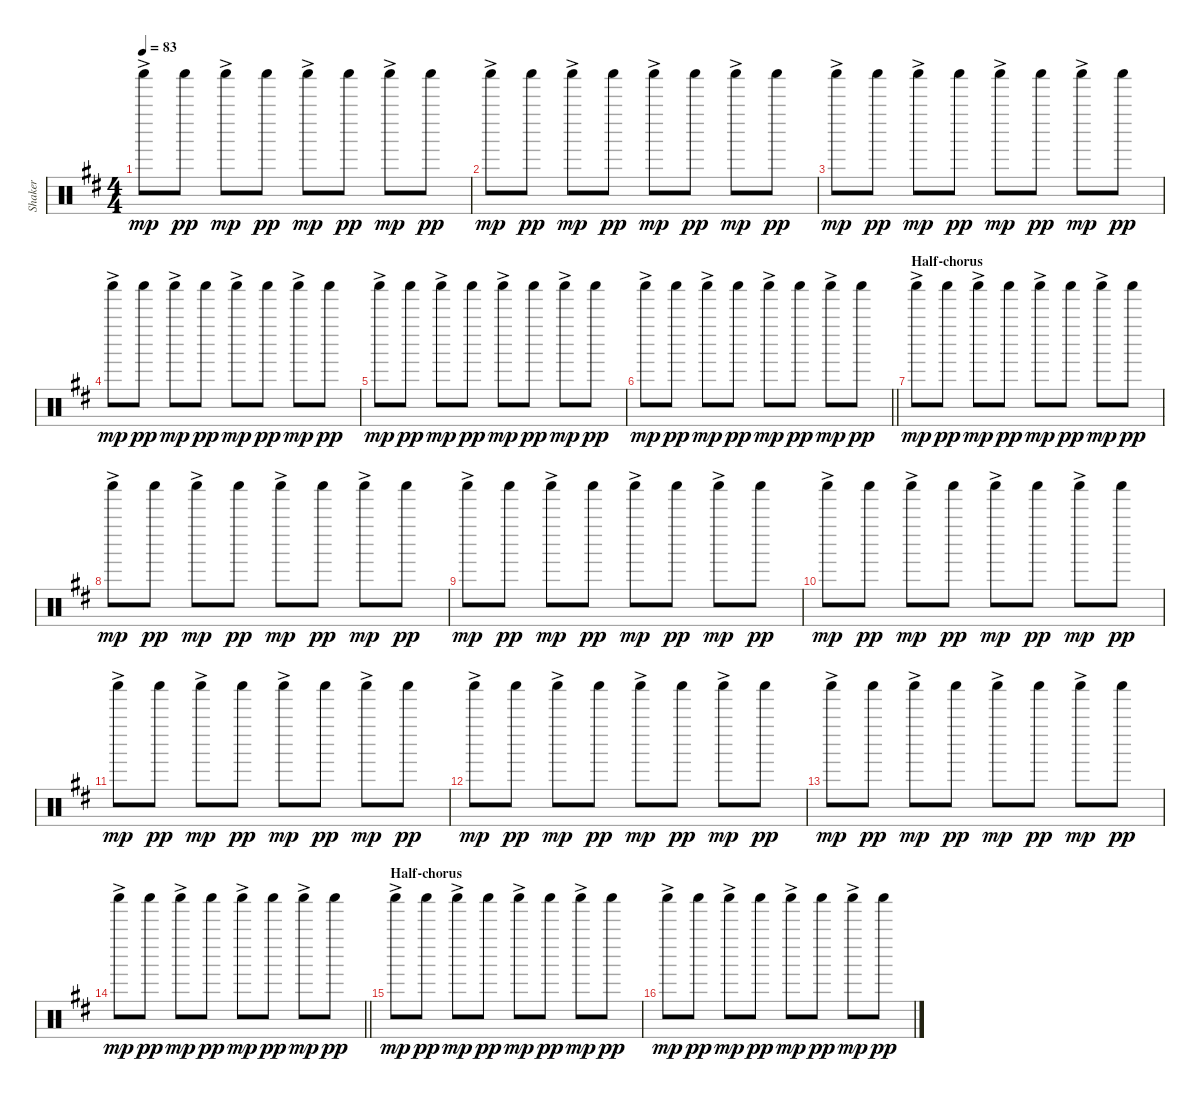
\track ("Shaker" "Shaker") {instrument percussion}
\staff {score}
\articulation defaults
\ts (4 4)
\tempo 83
\clef neutral
\ks d "Shaker (hit)"{ac}.8{dy mp} "Shaker (hit)".8{dy pp} "Shaker (hit)"{ac}.8{dy mp} "Shaker (hit)".8{dy pp} "Shaker (hit)"{ac}.8{dy mp} "Shaker (hit)".8{dy pp} "Shaker (hit)"{ac}.8{dy mp} "Shaker (hit)".8{dy pp}
|
"Shaker (hit)"{ac}.8{dy mp} "Shaker (hit)".8{dy pp} "Shaker (hit)"{ac}.8{dy mp} "Shaker (hit)".8{dy pp} "Shaker (hit)"{ac}.8{dy mp} "Shaker (hit)".8{dy pp} "Shaker (hit)"{ac}.8{dy mp} "Shaker (hit)".8{dy pp} |
"Shaker (hit)"{ac}.8{dy mp} "Shaker (hit)".8{dy pp} "Shaker (hit)"{ac}.8{dy mp} "Shaker (hit)".8{dy pp} "Shaker (hit)"{ac}.8{dy mp} "Shaker (hit)".8{dy pp} "Shaker (hit)"{ac}.8{dy mp} "Shaker (hit)".8{dy pp} |
"Shaker (hit)"{ac}.8{dy mp} "Shaker (hit)".8{dy pp} "Shaker (hit)"{ac}.8{dy mp} "Shaker (hit)".8{dy pp} "Shaker (hit)"{ac}.8{dy mp} "Shaker (hit)".8{dy pp} "Shaker (hit)"{ac}.8{dy mp} "Shaker (hit)".8{dy pp} |
"Shaker (hit)"{ac}.8{dy mp} "Shaker (hit)".8{dy pp} "Shaker (hit)"{ac}.8{dy mp} "Shaker (hit)".8{dy pp} "Shaker (hit)"{ac}.8{dy mp} "Shaker (hit)".8{dy pp} "Shaker (hit)"{ac}.8{dy mp} "Shaker (hit)".8{dy pp} |
\barLineRight lightlight "Shaker (hit)"{ac}.8{dy mp} "Shaker (hit)".8{dy pp} "Shaker (hit)"{ac}.8{dy mp} "Shaker (hit)".8{dy pp} "Shaker (hit)"{ac}.8{dy mp} "Shaker (hit)".8{dy pp} "Shaker (hit)"{ac}.8{dy mp} "Shaker (hit)".8{dy pp}
|
\section ("" "Half-chorus")
"Shaker (hit)"{ac}.8{dy mp} "Shaker (hit)".8{dy pp} "Shaker (hit)"{ac}.8{dy mp} "Shaker (hit)".8{dy pp} "Shaker (hit)"{ac}.8{dy mp} "Shaker (hit)".8{dy pp} "Shaker (hit)"{ac}.8{dy mp} "Shaker (hit)".8{dy pp} |
"Shaker (hit)"{ac}.8{dy mp} "Shaker (hit)".8{dy pp} "Shaker (hit)"{ac}.8{dy mp} "Shaker (hit)".8{dy pp} "Shaker (hit)"{ac}.8{dy mp} "Shaker (hit)".8{dy pp} "Shaker (hit)"{ac}.8{dy mp} "Shaker (hit)".8{dy pp} |
"Shaker (hit)"{ac}.8{dy mp} "Shaker (hit)".8{dy pp} "Shaker (hit)"{ac}.8{dy mp} "Shaker (hit)".8{dy pp} "Shaker (hit)"{ac}.8{dy mp} "Shaker (hit)".8{dy pp} "Shaker (hit)"{ac}.8{dy mp} "Shaker (hit)".8{dy pp} |
"Shaker (hit)"{ac}.8{dy mp} "Shaker (hit)".8{dy pp} "Shaker (hit)"{ac}.8{dy mp} "Shaker (hit)".8{dy pp} "Shaker (hit)"{ac}.8{dy mp} "Shaker (hit)".8{dy pp} "Shaker (hit)"{ac}.8{dy mp} "Shaker (hit)".8{dy pp} |
"Shaker (hit)"{ac}.8{dy mp} "Shaker (hit)".8{dy pp} "Shaker (hit)"{ac}.8{dy mp} "Shaker (hit)".8{dy pp} "Shaker (hit)"{ac}.8{dy mp} "Shaker (hit)".8{dy pp} "Shaker (hit)"{ac}.8{dy mp} "Shaker (hit)".8{dy pp} |
"Shaker (hit)"{ac}.8{dy mp} "Shaker (hit)".8{dy pp} "Shaker (hit)"{ac}.8{dy mp} "Shaker (hit)".8{dy pp} "Shaker (hit)"{ac}.8{dy mp} "Shaker (hit)".8{dy pp} "Shaker (hit)"{ac}.8{dy mp} "Shaker (hit)".8{dy pp} |
"Shaker (hit)"{ac}.8{dy mp} "Shaker (hit)".8{dy pp} "Shaker (hit)"{ac}.8{dy mp} "Shaker (hit)".8{dy pp} "Shaker (hit)"{ac}.8{dy mp} "Shaker (hit)".8{dy pp} "Shaker (hit)"{ac}.8{dy mp} "Shaker (hit)".8{dy pp} |
\barLineRight lightlight "Shaker (hit)"{ac}.8{dy mp} "Shaker (hit)".8{dy pp} "Shaker (hit)"{ac}.8{dy mp} "Shaker (hit)".8{dy pp} "Shaker (hit)"{ac}.8{dy mp} "Shaker (hit)".8{dy pp} "Shaker (hit)"{ac}.8{dy mp} "Shaker (hit)".8{dy pp}
|
\section ("" "Half-chorus")
"Shaker (hit)"{ac}.8{dy mp} "Shaker (hit)".8{dy pp} "Shaker (hit)"{ac}.8{dy mp} "Shaker (hit)".8{dy pp} "Shaker (hit)"{ac}.8{dy mp} "Shaker (hit)".8{dy pp} "Shaker (hit)"{ac}.8{dy mp} "Shaker (hit)".8{dy pp} |
"Shaker (hit)"{ac}.8{dy mp} "Shaker (hit)".8{dy pp} "Shaker (hit)"{ac}.8{dy mp} "Shaker (hit)".8{dy pp} "Shaker (hit)"{ac}.8{dy mp} "Shaker (hit)".8{dy pp} "Shaker (hit)"{ac}.8{dy mp} "Shaker (hit)".8{dy pp}
